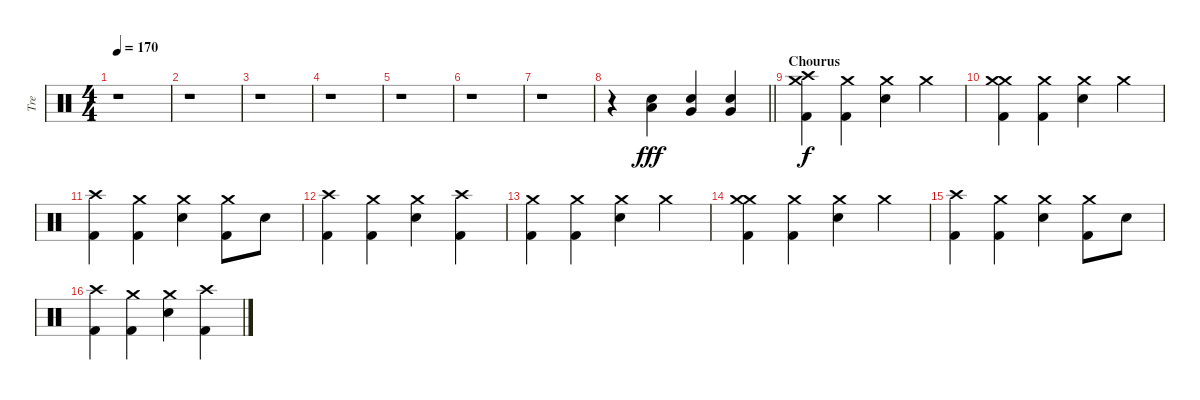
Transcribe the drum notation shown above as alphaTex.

\track ("Tre" "Tre") {instrument percussion}
\staff {score}
\articulation defaults
\ts (4 4)
\tempo 170
\clef neutral
\ks c
r.1{dy f} |
r.1 |
r.1 |
r.1 |
r.1 |
r.1 |
r.1 |
\barLineRight lightlight
r.4 ("Snare (hit) 2" "Low Tom (hit)").4{dy fff} ("Snare (hit) 2" "Very Low Tom (hit)").4 ("Snare (hit) 2" "Very Low Tom (hit)").4 |
\section ("" "Chourus")
("Crash medium (hit)" "Crash high (hit)" "Kick (hit) 2").4{dy f} ("Crash medium (hit)" "Kick (hit) 2").4 ("Crash medium (hit)" "Snare (hit) 2").4 "Crash medium (hit)".4 |
("Crash medium (hit)" "Crash medium (hit)" "Kick (hit) 2").4 ("Crash medium (hit)" "Kick (hit) 2").4 ("Crash medium (hit)" "Snare (hit) 2").4 "Crash medium (hit)".4 |
("Crash high (hit)" "Kick (hit) 2").4 ("Crash medium (hit)" "Kick (hit) 2").4 ("Crash medium (hit)" "Snare (hit) 2").4 ("Crash medium (hit)" "Kick (hit) 2").8 "Snare (hit) 2".8 |
("Crash high (hit)" "Kick (hit) 2").4 ("Crash medium (hit)" "Kick (hit) 2").4 ("Crash medium (hit)" "Snare (hit) 2").4 ("Crash high (hit)" "Kick (hit) 2").4 |
("Crash medium (hit)" "Kick (hit) 2").4 ("Crash medium (hit)" "Kick (hit) 2").4 ("Crash medium (hit)" "Snare (hit) 2").4 "Crash medium (hit)".4 |
("Crash medium (hit)" "Crash medium (hit)" "Kick (hit) 2").4 ("Crash medium (hit)" "Kick (hit) 2").4 ("Crash medium (hit)" "Snare (hit) 2").4 "Crash medium (hit)".4 |
("Crash high (hit)" "Kick (hit) 2").4 ("Crash medium (hit)" "Kick (hit) 2").4 ("Crash medium (hit)" "Snare (hit) 2").4 ("Crash medium (hit)" "Kick (hit) 2").8 "Snare (hit) 2".8 |
("Crash high (hit)" "Kick (hit) 2").4 ("Crash medium (hit)" "Kick (hit) 2").4 ("Crash medium (hit)" "Snare (hit) 2").4 ("Crash high (hit)" "Kick (hit) 2").4
